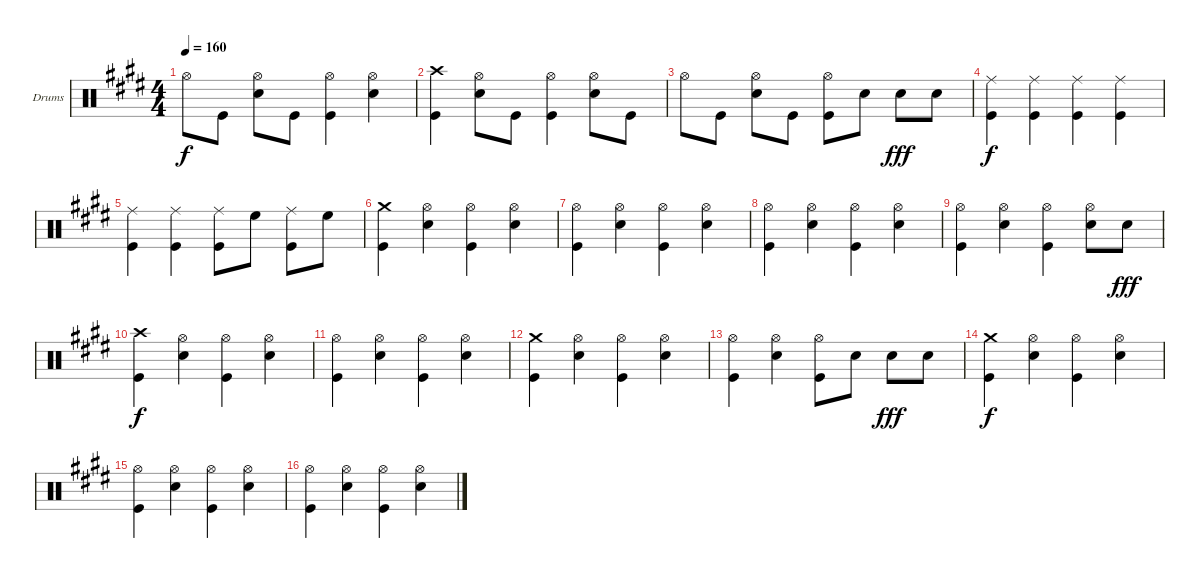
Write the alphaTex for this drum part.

\bracketExtendMode groupsimilarinstruments
\firstSystemTrackNameOrientation horizontal
\otherSystemsTrackNameOrientation horizontal
\track ("Drumkit" "Drums") {instrument percussion}
\staff {score}
\articulation defaults
\ts (4 4)
\tempo 160
\clef neutral
\ks e "Hi-Hat (open)".8{dy f} "Kick (hit)".8
("Hi-Hat (open)" "Snare (hit) 2").8 "Kick (hit)".8 ("Hi-Hat (open)" "Kick (hit)").4 ("Hi-Hat (open)" "Snare (hit) 2").4 |
("Crash high (hit)" "Kick (hit)").4 ("Hi-Hat (open)" "Snare (hit) 2").8 "Kick (hit)".8 ("Hi-Hat (open)" "Kick (hit)").4 ("Hi-Hat (open)" "Snare (hit) 2").8 "Kick (hit)".8 |
"Hi-Hat (open)".8 "Kick (hit)".8 ("Hi-Hat (open)" "Snare (hit) 2").8 "Kick (hit)".8 ("Hi-Hat (open)" "Kick (hit)").8 "Snare (hit) 2".8 "Snare (hit) 2".8{dy fff} "Snare (hit) 2".8 |
("Ride (middle)" "Kick (hit)").4{dy f} ("Ride (middle)" "Kick (hit)").4 ("Ride (middle)" "Kick (hit)").4 ("Ride (middle)" "Kick (hit)").4 |
("Ride (middle)" "Kick (hit)").4 ("Ride (middle)" "Kick (hit)").4 ("Ride (middle)" "Kick (hit)").8 "High Floor Tom (hit)".8 ("Ride (middle)" "Kick (hit)").8 "High Floor Tom (hit)".8 |
("Crash medium (hit)" "Kick (hit)").4 ("Hi-Hat (open)" "Snare (hit) 2").4 ("Hi-Hat (open)" "Kick (hit)").4 ("Hi-Hat (open)" "Snare (hit) 2").4 |
("Hi-Hat (open)" "Kick (hit)").4 ("Hi-Hat (open)" "Snare (hit) 2").4 ("Hi-Hat (open)" "Kick (hit)").4 ("Hi-Hat (open)" "Snare (hit) 2").4 |
("Hi-Hat (open)" "Kick (hit)").4 ("Hi-Hat (open)" "Snare (hit) 2").4 ("Hi-Hat (open)" "Kick (hit)").4 ("Hi-Hat (open)" "Snare (hit) 2").4 |
("Hi-Hat (open)" "Kick (hit)").4 ("Hi-Hat (open)" "Snare (hit) 2").4 ("Hi-Hat (open)" "Kick (hit)").4 ("Hi-Hat (open)" "Snare (hit) 2").8 "Snare (hit) 2".8{dy fff} |
("Crash high (hit)" "Kick (hit)").4{dy f} ("Hi-Hat (open)" "Snare (hit) 2").4 ("Hi-Hat (open)" "Kick (hit)").4 ("Hi-Hat (open)" "Snare (hit) 2").4 |
("Hi-Hat (open)" "Kick (hit)").4 ("Hi-Hat (open)" "Snare (hit) 2").4 ("Hi-Hat (open)" "Kick (hit)").4 ("Hi-Hat (open)" "Snare (hit) 2").4 |
("Crash medium (hit)" "Kick (hit)").4 ("Hi-Hat (open)" "Snare (hit) 2").4 ("Hi-Hat (open)" "Kick (hit)").4 ("Hi-Hat (open)" "Snare (hit) 2").4 |
("Hi-Hat (open)" "Kick (hit)").4 ("Hi-Hat (open)" "Snare (hit) 2").4 ("Hi-Hat (open)" "Kick (hit)").8 "Snare (hit) 2".8 "Snare (hit) 2".8{dy fff} "Snare (hit) 2".8 |
("Crash medium (hit)" "Kick (hit)").4{dy f} ("Hi-Hat (open)" "Snare (hit) 2").4 ("Hi-Hat (open)" "Kick (hit)").4 ("Hi-Hat (open)" "Snare (hit) 2").4 |
("Hi-Hat (open)" "Kick (hit)").4 ("Hi-Hat (open)" "Snare (hit) 2").4 ("Hi-Hat (open)" "Kick (hit)").4 ("Hi-Hat (open)" "Snare (hit) 2").4 |
("Hi-Hat (open)" "Kick (hit)").4 ("Hi-Hat (open)" "Snare (hit) 2").4 ("Hi-Hat (open)" "Kick (hit)").4 ("Hi-Hat (open)" "Snare (hit) 2").4
